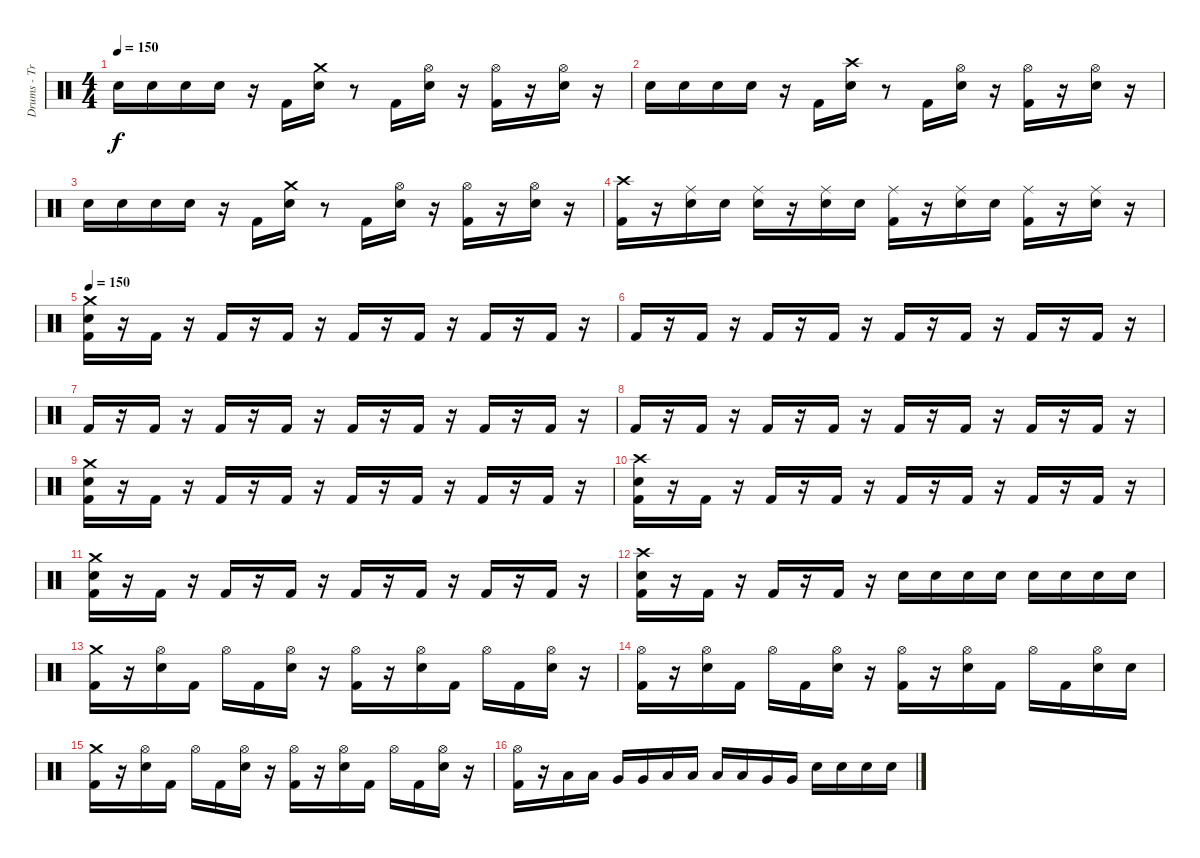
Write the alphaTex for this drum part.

\track ("Drums - Travis Barker" "Drums - Tr") {instrument percussion}
\staff {score}
\articulation defaults
\ts (4 4)
\tempo 150
\clef neutral
\ks c "Electric Snare (hit)".16{dy f} "Electric Snare (hit)".16 "Electric Snare (hit)".16 "Electric Snare (hit)".16
r.16 "Kick (hit) 2".16 ("Crash medium (hit)" "Electric Snare (hit)").16 r.8 "Kick (hit) 2".16 ("Hi-Hat (open)" "Electric Snare (hit)").16 r.16 ("Hi-Hat (open)" "Kick (hit) 2").16 r.16 ("Hi-Hat (open)" "Electric Snare (hit)").16 r.16 |
"Electric Snare (hit)".16 "Electric Snare (hit)".16 "Electric Snare (hit)".16 "Electric Snare (hit)".16 r.16 "Kick (hit) 2".16 ("Crash high (hit)" "Electric Snare (hit)").16 r.8 "Kick (hit) 2".16 ("Hi-Hat (open)" "Electric Snare (hit)").16 r.16 ("Hi-Hat (open)" "Kick (hit) 2").16 r.16 ("Hi-Hat (open)" "Electric Snare (hit)").16 r.16 |
"Electric Snare (hit)".16 "Electric Snare (hit)".16 "Electric Snare (hit)".16 "Electric Snare (hit)".16 r.16 "Kick (hit) 2".16 ("Crash medium (hit)" "Electric Snare (hit)").16 r.8 "Kick (hit) 2".16 ("Hi-Hat (open)" "Electric Snare (hit)").16 r.16 ("Hi-Hat (open)" "Kick (hit) 2").16 r.16 ("Hi-Hat (open)" "Electric Snare (hit)").16 r.16 |
("Crash high (hit)" "Kick (hit) 2").16 r.16 ("Ride (middle)" "Electric Snare (hit)").16 "Electric Snare (hit)".16 ("Hand Clap (hit)" "Ride (middle)").16 r.16 ("Ride (middle)" "Electric Snare (hit)").16 "Electric Snare (hit)".16 ("Ride (middle)" "Kick (hit) 2").16 r.16 ("Ride (middle)" "Electric Snare (hit)").16 "Electric Snare (hit)".16 ("Ride (middle)" "Kick (hit) 2").16 r.16 ("Ride (middle)" "Electric Snare (hit)").16 r.16 |
\tempo 150
("Crash medium (hit)" "Electric Snare (hit)" "Kick (hit) 2").16 r.16 "Kick (hit) 2".16 r.16 "Kick (hit) 2".16 r.16 "Kick (hit) 2".16 r.16 "Kick (hit) 2".16 r.16 "Kick (hit) 2".16 r.16 "Kick (hit) 2".16 r.16 "Kick (hit) 2".16 r.16 |
"Kick (hit) 2".16 r.16 "Kick (hit) 2".16 r.16 "Kick (hit) 2".16 r.16 "Kick (hit) 2".16 r.16 "Kick (hit) 2".16 r.16 "Kick (hit) 2".16 r.16 "Kick (hit) 2".16 r.16 "Kick (hit) 2".16 r.16 |
"Kick (hit) 2".16 r.16 "Kick (hit) 2".16 r.16 "Kick (hit) 2".16 r.16 "Kick (hit) 2".16 r.16 "Kick (hit) 2".16 r.16 "Kick (hit) 2".16 r.16 "Kick (hit) 2".16 r.16 "Kick (hit) 2".16 r.16 |
"Kick (hit) 2".16 r.16 "Kick (hit) 2".16 r.16 "Kick (hit) 2".16 r.16 "Kick (hit) 2".16 r.16 "Kick (hit) 2".16 r.16 "Kick (hit) 2".16 r.16 "Kick (hit) 2".16 r.16 "Kick (hit) 2".16 r.16 |
("Crash medium (hit)" "Electric Snare (hit)" "Kick (hit) 2").16 r.16 "Kick (hit) 2".16 r.16 "Kick (hit) 2".16 r.16 "Kick (hit) 2".16 r.16 "Kick (hit) 2".16 r.16 "Kick (hit) 2".16 r.16 "Kick (hit) 2".16 r.16 "Kick (hit) 2".16 r.16 |
("Crash high (hit)" "Electric Snare (hit)" "Kick (hit) 2").16 r.16 "Kick (hit) 2".16 r.16 "Kick (hit) 2".16 r.16 "Kick (hit) 2".16 r.16 "Kick (hit) 2".16 r.16 "Kick (hit) 2".16 r.16 "Kick (hit) 2".16 r.16 "Kick (hit) 2".16 r.16 |
("Crash medium (hit)" "Electric Snare (hit)" "Kick (hit) 2").16 r.16 "Kick (hit) 2".16 r.16 "Kick (hit) 2".16 r.16 "Kick (hit) 2".16 r.16 "Kick (hit) 2".16 r.16 "Kick (hit) 2".16 r.16 "Kick (hit) 2".16 r.16 "Kick (hit) 2".16 r.16 |
("Crash high (hit)" "Electric Snare (hit)" "Kick (hit) 2").16 r.16 "Kick (hit) 2".16 r.16 "Kick (hit) 2".16 r.16 "Kick (hit) 2".16 r.16 "Electric Snare (hit)".16 "Electric Snare (hit)".16 "Electric Snare (hit)".16 "Electric Snare (hit)".16 "Electric Snare (hit)".16 "Electric Snare (hit)".16 "Electric Snare (hit)".16 "Electric Snare (hit)".16 |
("Crash medium (hit)" "Kick (hit) 2").16 r.16 ("Hi-Hat (open)" "Electric Snare (hit)").16 "Kick (hit) 2".16 "Hi-Hat (open)".16 "Kick (hit) 2".16 ("Hi-Hat (open)" "Electric Snare (hit)").16 r.16 ("Hi-Hat (open)" "Kick (hit) 2").16 r.16 ("Hi-Hat (open)" "Electric Snare (hit)").16 "Kick (hit) 2".16 "Hi-Hat (open)".16 "Kick (hit) 2".16 ("Hi-Hat (open)" "Electric Snare (hit)").16 r.16 |
("Hi-Hat (open)" "Kick (hit) 2").16 r.16 ("Hi-Hat (open)" "Electric Snare (hit)").16 "Kick (hit) 2".16 "Hi-Hat (open)".16 "Kick (hit) 2".16 ("Hi-Hat (open)" "Electric Snare (hit)").16 r.16 ("Hi-Hat (open)" "Kick (hit) 2").16 r.16 ("Hi-Hat (open)" "Electric Snare (hit)").16 "Kick (hit) 2".16 "Hi-Hat (open)".16 "Kick (hit) 2".16 ("Hi-Hat (open)" "Electric Snare (hit)").16 "Electric Snare (hit)".16 |
("Crash medium (hit)" "Kick (hit) 2").16 r.16 ("Hi-Hat (open)" "Electric Snare (hit)").16 "Kick (hit) 2".16 "Hi-Hat (open)".16 "Kick (hit) 2".16 ("Hi-Hat (open)" "Electric Snare (hit)").16 r.16 ("Hi-Hat (open)" "Kick (hit) 2").16 r.16 ("Hi-Hat (open)" "Electric Snare (hit)").16 "Kick (hit) 2".16 "Hi-Hat (open)".16 "Kick (hit) 2".16 ("Hi-Hat (open)" "Electric Snare (hit)").16 r.16 |
("Hi-Hat (open)" "Kick (hit) 2").16 r.16 "Low Tom (hit)".16 "Low Tom (hit)".16 "Very Low Tom (hit)".16 "Very Low Tom (hit)".16 "Low Floor Tom (hit)".16 "Low Floor Tom (hit)".16 "Low Tom (hit)".16 "Low Tom (hit)".16 "Very Low Tom (hit)".16 "Very Low Tom (hit)".16 "Electric Snare (hit)".16 "Electric Snare (hit)".16 "Electric Snare (hit)".16 "Electric Snare (hit)".16
